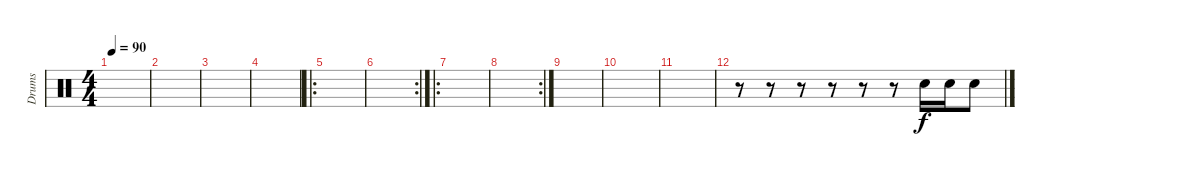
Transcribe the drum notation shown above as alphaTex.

\track ("Drums" "Drums") {instrument percussion}
\staff
\articulation defaults
\ts (4 4)
\tempo 90
\clef neutral
\ks c
|
|
|
|
\ro
|
\rc 2
|
\ro
|
\rc 2
|
|
|
|
r.8 r.8 r.8 r.8 r.8 r.8 "Electric Snare (hit)".16 "Electric Snare (hit)".16 "Electric Snare (hit)".8
